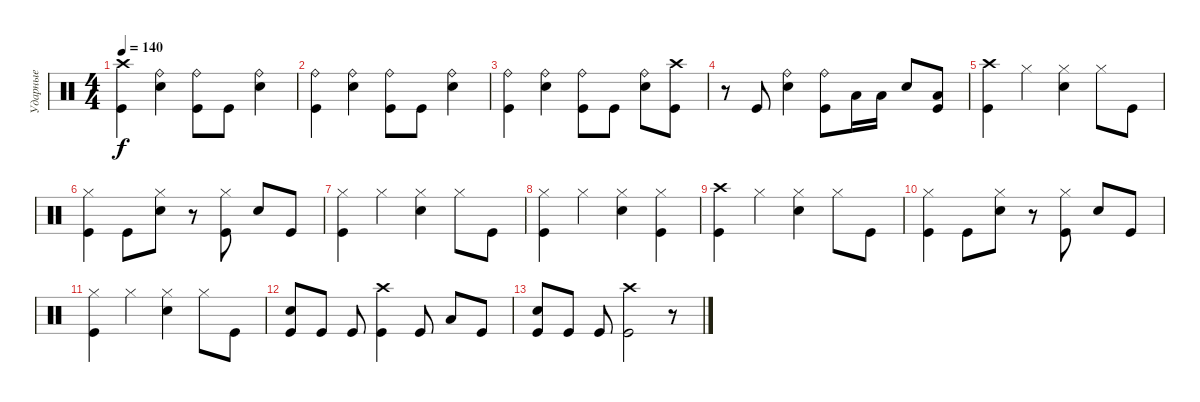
\track ("Ударные" "Ударные") {instrument percussion}
\staff {score}
\articulation defaults
\ts (4 4)
\tempo 140
\clef neutral
\ks c
("Crash high (hit)" "Kick (hit)").4{dy f} ("Ride (bell)" "Electric Snare (hit)").4 ("Ride (bell)" "Kick (hit)").8 "Kick (hit)".8 ("Ride (bell)" "Electric Snare (hit)").4 |
("Ride (bell)" "Kick (hit)").4 ("Ride (bell)" "Electric Snare (hit)").4 ("Ride (bell)" "Kick (hit)").8 "Kick (hit)".8 ("Ride (bell)" "Electric Snare (hit)").4 |
("Ride (bell)" "Kick (hit)").4 ("Ride (bell)" "Electric Snare (hit)").4 ("Ride (bell)" "Kick (hit)").8 "Kick (hit)".8 ("Ride (bell)" "Electric Snare (hit)").8 ("Crash high (hit)" "Kick (hit)").8 |
r.8 "Kick (hit)".8 ("Ride (bell)" "Electric Snare (hit)").4 ("Ride (bell)" "Kick (hit)").8 "Low Tom (hit)".16 "Low Tom (hit)".16 "Electric Snare (hit)".8 ("Low Tom (hit)" "Kick (hit)").8 |
("Crash high (hit)" "Kick (hit)").4 "Hi-Hat (closed)".4 ("Hi-Hat (closed)" "Electric Snare (hit)").4 "Hi-Hat (closed)".8 "Kick (hit)".8 |
("Hi-Hat (closed)" "Kick (hit)").4 "Kick (hit)".8 ("Hi-Hat (closed)" "Electric Snare (hit)").8 r.8 ("Hi-Hat (closed)" "Kick (hit)").8 "Electric Snare (hit)".8 "Kick (hit)".8 |
("Hi-Hat (closed)" "Kick (hit)").4 "Hi-Hat (closed)".4 ("Hi-Hat (closed)" "Electric Snare (hit)").4 "Hi-Hat (closed)".8 "Kick (hit)".8 |
("Hi-Hat (closed)" "Kick (hit)").4 "Hi-Hat (closed)".4 ("Hi-Hat (closed)" "Electric Snare (hit)").4 ("Hi-Hat (closed)" "Kick (hit)").4 |
("Crash high (hit)" "Kick (hit)").4 "Hi-Hat (closed)".4 ("Hi-Hat (closed)" "Electric Snare (hit)").4 "Hi-Hat (closed)".8 "Kick (hit)".8 |
("Hi-Hat (closed)" "Kick (hit)").4 "Kick (hit)".8 ("Hi-Hat (closed)" "Electric Snare (hit)").8 r.8 ("Hi-Hat (closed)" "Kick (hit)").8 "Electric Snare (hit)".8 "Kick (hit)".8 |
("Hi-Hat (closed)" "Kick (hit)").4 "Hi-Hat (closed)".4 ("Hi-Hat (closed)" "Electric Snare (hit)").4 "Hi-Hat (closed)".8 "Kick (hit)".8 |
("Electric Snare (hit)" "Kick (hit)").8 "Kick (hit)".8 "Kick (hit)".8 ("Crash high (hit)" "Kick (hit)").4 "Kick (hit)".8 "Low Tom (hit)".8 "Kick (hit)".8 |
("Electric Snare (hit)" "Kick (hit)").8 "Kick (hit)".8 "Kick (hit)".8 ("Crash high (hit)" "Kick (hit)").2 r.8
